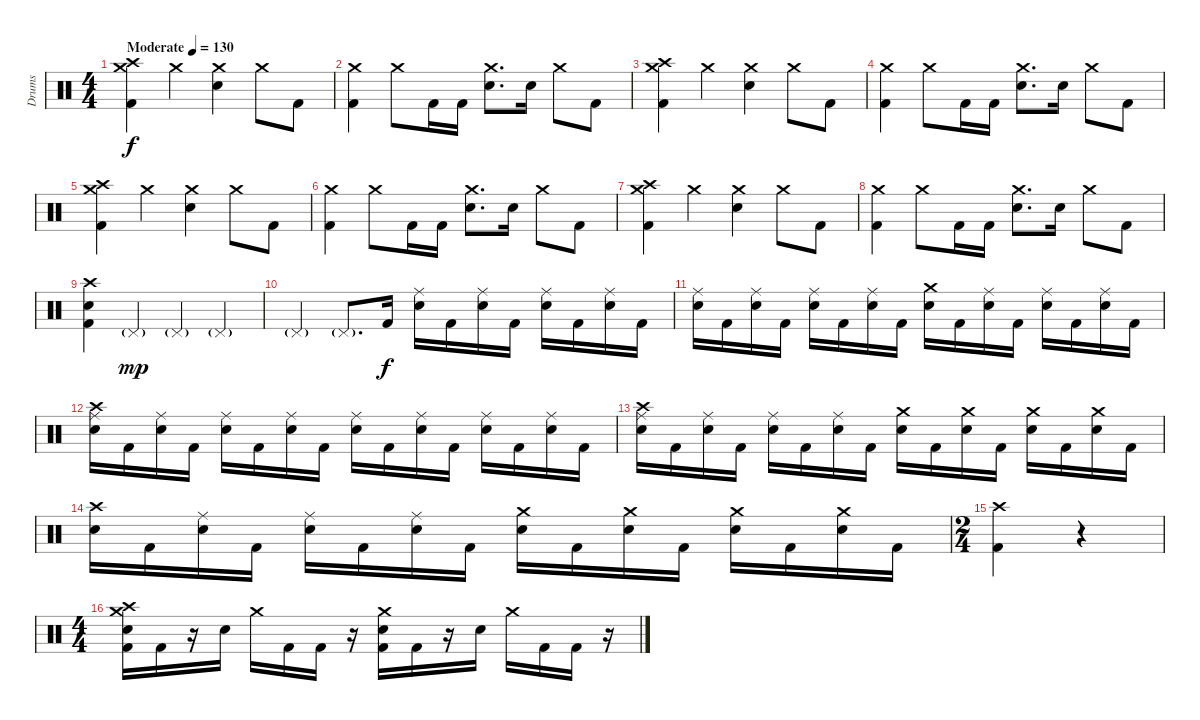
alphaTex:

\track ("Drums" "Drums") {instrument percussion}
\staff {score}
\articulation defaults
\ts (4 4)
\tempo (130 "Moderate")
\clef neutral
\ks c
("Crash high (hit)" "Crash medium (hit)" "Kick (hit) 2").4{dy f} "Crash medium (hit)".4 ("Crash medium (hit)" "Snare (hit) 2").4 "Crash medium (hit)".8 "Kick (hit) 2".8 |
("Crash medium (hit)" "Kick (hit) 2").4 "Crash medium (hit)".8 "Kick (hit) 2".16 "Kick (hit) 2".16 ("Crash medium (hit)" "Snare (hit) 2").8{d} "Snare (hit) 2".16 "Crash medium (hit)".8 "Kick (hit) 2".8 |
("Crash high (hit)" "Crash medium (hit)" "Kick (hit) 2").4 "Crash medium (hit)".4 ("Crash medium (hit)" "Snare (hit) 2").4 "Crash medium (hit)".8 "Kick (hit) 2".8 |
("Crash medium (hit)" "Kick (hit) 2").4 "Crash medium (hit)".8 "Kick (hit) 2".16 "Kick (hit) 2".16 ("Crash medium (hit)" "Snare (hit) 2").8{d} "Snare (hit) 2".16 "Crash medium (hit)".8 "Kick (hit) 2".8 |
("Crash high (hit)" "Crash medium (hit)" "Kick (hit) 2").4 "Crash medium (hit)".4 ("Crash medium (hit)" "Snare (hit) 2").4 "Crash medium (hit)".8 "Kick (hit) 2".8 |
("Crash medium (hit)" "Kick (hit) 2").4 "Crash medium (hit)".8 "Kick (hit) 2".16 "Kick (hit) 2".16 ("Crash medium (hit)" "Snare (hit) 2").8{d} "Snare (hit) 2".16 "Crash medium (hit)".8 "Kick (hit) 2".8 |
("Crash high (hit)" "Crash medium (hit)" "Kick (hit) 2").4 "Crash medium (hit)".4 ("Crash medium (hit)" "Snare (hit) 2").4 "Crash medium (hit)".8 "Kick (hit) 2".8 |
("Crash medium (hit)" "Kick (hit) 2").4 "Crash medium (hit)".8 "Kick (hit) 2".16 "Kick (hit) 2".16 ("Crash medium (hit)" "Snare (hit) 2").8{d} "Snare (hit) 2".16 "Crash medium (hit)".8 "Kick (hit) 2".8 |
("Crash high (hit)" "Snare (hit) 2" "Kick (hit) 2").4 "Pedal Hi-Hat (hit)"{g}.4{dy mp} "Pedal Hi-Hat (hit)"{g}.4 "Pedal Hi-Hat (hit)"{g}.4 |
"Pedal Hi-Hat (hit)"{g}.4 "Pedal Hi-Hat (hit)"{g}.8{d} "Kick (hit) 2".16{dy f} ("Ride (middle)" "Snare (hit) 2").16 "Kick (hit) 2".16 ("Ride (middle)" "Snare (hit) 2").16 "Kick (hit) 2".16 ("Ride (middle)" "Snare (hit) 2").16 "Kick (hit) 2".16 ("Ride (middle)" "Snare (hit) 2").16 "Kick (hit) 2".16 |
("Ride (middle)" "Snare (hit) 2").16 "Kick (hit) 2".16 ("Ride (middle)" "Snare (hit) 2").16 "Kick (hit) 2".16 ("Ride (middle)" "Snare (hit) 2").16 "Kick (hit) 2".16 ("Ride (middle)" "Snare (hit) 2").16 "Kick (hit) 2".16 ("Crash medium (hit)" "Snare (hit) 2").16 "Kick (hit) 2".16 ("Ride (middle)" "Snare (hit) 2").16 "Kick (hit) 2".16 ("Ride (middle)" "Snare (hit) 2").16 "Kick (hit) 2".16 ("Ride (middle)" "Snare (hit) 2").16 "Kick (hit) 2".16 |
("Crash high (hit)" "Ride (middle)" "Snare (hit) 2").16 "Kick (hit) 2".16 ("Ride (middle)" "Snare (hit) 2").16 "Kick (hit) 2".16 ("Ride (middle)" "Snare (hit) 2").16 "Kick (hit) 2".16 ("Ride (middle)" "Snare (hit) 2").16 "Kick (hit) 2".16 ("Ride (middle)" "Snare (hit) 2").16 "Kick (hit) 2".16 ("Ride (middle)" "Snare (hit) 2").16 "Kick (hit) 2".16 ("Ride (middle)" "Snare (hit) 2").16 "Kick (hit) 2".16 ("Ride (middle)" "Snare (hit) 2").16 "Kick (hit) 2".16 |
("Crash high (hit)" "Ride (middle)" "Snare (hit) 2").16 "Kick (hit) 2".16 ("Ride (middle)" "Snare (hit) 2").16 "Kick (hit) 2".16 ("Ride (middle)" "Snare (hit) 2").16 "Kick (hit) 2".16 ("Ride (middle)" "Snare (hit) 2").16 "Kick (hit) 2".16 ("Crash medium (hit)" "Snare (hit) 2").16 "Kick (hit) 2".16 ("Crash medium (hit)" "Snare (hit) 2").16 "Kick (hit) 2".16 ("Crash medium (hit)" "Snare (hit) 2").16 "Kick (hit) 2".16 ("Crash medium (hit)" "Snare (hit) 2").16 "Kick (hit) 2".16 |
("Crash high (hit)" "Snare (hit) 2").16 "Kick (hit) 2".16 ("Ride (middle)" "Snare (hit) 2").16 "Kick (hit) 2".16 ("Ride (middle)" "Snare (hit) 2").16 "Kick (hit) 2".16 ("Ride (middle)" "Snare (hit) 2").16 "Kick (hit) 2".16 ("Crash medium (hit)" "Snare (hit) 2").16 "Kick (hit) 2".16 ("Crash medium (hit)" "Snare (hit) 2").16 "Kick (hit) 2".16 ("Crash medium (hit)" "Snare (hit) 2").16 "Kick (hit) 2".16 ("Crash medium (hit)" "Snare (hit) 2").16 "Kick (hit) 2".16 |
\ts (2 4)
("Crash high (hit)" "Kick (hit) 2").4 r.4 |
\ts (4 4)
("Crash medium (hit)" "Crash high (hit)" "Snare (hit) 2" "Kick (hit) 2").16 "Kick (hit) 2".16 r.16 "Snare (hit) 2".16 "Crash medium (hit)".16 "Kick (hit) 2".16 "Kick (hit) 2".16 r.16 ("Crash medium (hit)" "Snare (hit) 2" "Kick (hit) 2").16 "Kick (hit) 2".16 r.16 "Snare (hit) 2".16 "Crash medium (hit)".16 "Kick (hit) 2".16 "Kick (hit) 2".16 r.16
